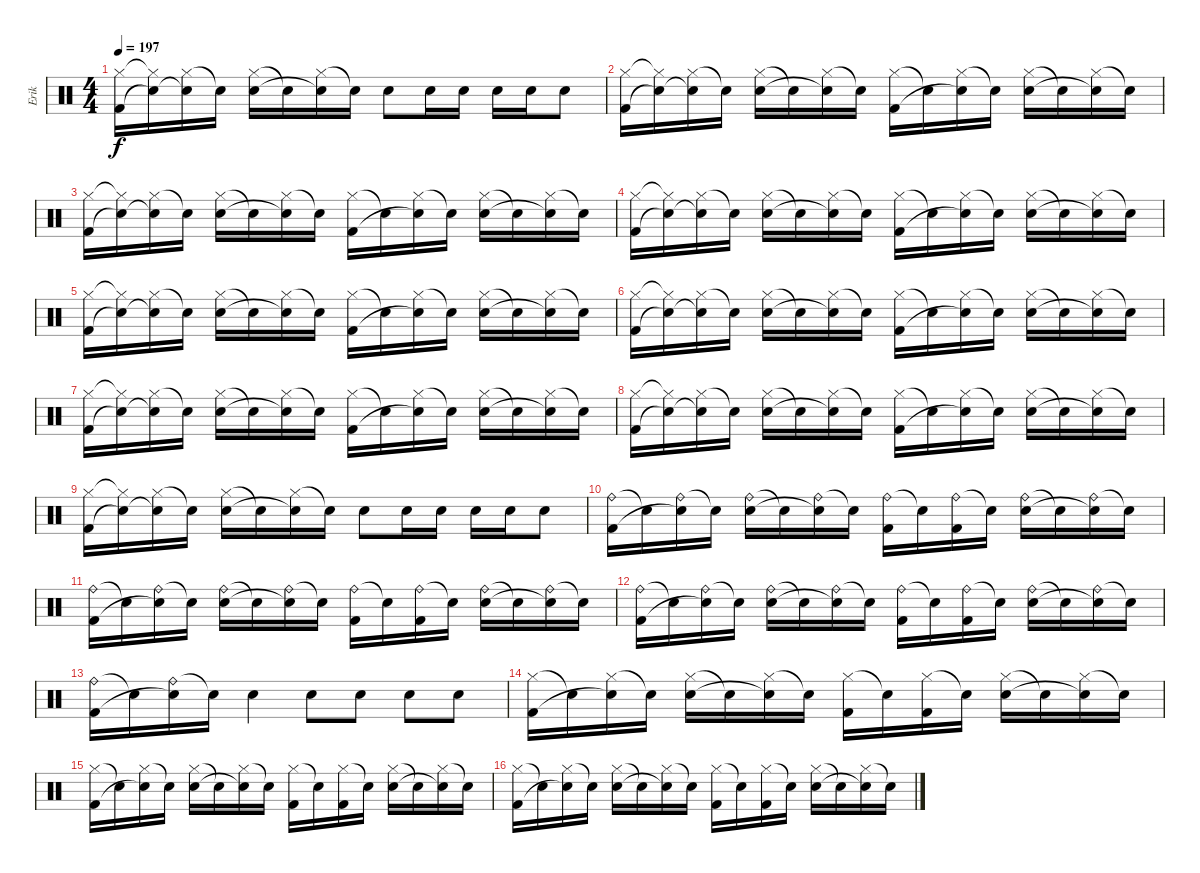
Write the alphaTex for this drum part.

\track ("Erik" "Erik") {instrument percussion}
\staff {score}
\articulation defaults
\ts (4 4)
\tempo 197
\clef neutral
\ks c
("Hi-Hat (closed)" "Kick (hit) 2").16{dy f} ("Hi-Hat (closed)"{t} "Electric Snare (hit)"{t}).16 ("Hi-Hat (closed)" "Snare (hit)"{t}).16 "Snare (hit)"{t}.16 ("Hi-Hat (closed)" "Electric Snare (hit)").16 "Snare (hit)"{t}.16 ("Hi-Hat (closed)" "Snare (hit)"{t}).16 "Snare (hit)"{t}.16 "Electric Snare (hit)".8 "Electric Snare (hit)".16 "Electric Snare (hit)".16 "Electric Snare (hit)".16 "Electric Snare (hit)".16 "Electric Snare (hit)".8 |
("Hi-Hat (closed)" "Kick (hit) 2").16 ("Hi-Hat (closed)"{t} "Electric Snare (hit)"{t}).16 ("Hi-Hat (closed)" "Snare (hit)"{t}).16 "Snare (hit)"{t}.16 ("Hi-Hat (closed)" "Electric Snare (hit)").16 "Snare (hit)"{t}.16 ("Hi-Hat (closed)" "Snare (hit)"{t}).16 "Snare (hit)"{t}.16 ("Hi-Hat (closed)" "Kick (hit) 2").16 "Snare (hit)"{t}.16 ("Hi-Hat (closed)" "Snare (hit)"{t}).16 "Snare (hit)"{t}.16 ("Hi-Hat (closed)" "Electric Snare (hit)").16 "Snare (hit)"{t}.16 ("Hi-Hat (closed)" "Snare (hit)"{t}).16 "Snare (hit)"{t}.16 |
("Hi-Hat (closed)" "Kick (hit) 2").16 ("Hi-Hat (closed)"{t} "Electric Snare (hit)"{t}).16 ("Hi-Hat (closed)" "Snare (hit)"{t}).16 "Snare (hit)"{t}.16 ("Hi-Hat (closed)" "Electric Snare (hit)").16 "Snare (hit)"{t}.16 ("Hi-Hat (closed)" "Snare (hit)"{t}).16 "Snare (hit)"{t}.16 ("Hi-Hat (closed)" "Kick (hit) 2").16 "Snare (hit)"{t}.16 ("Hi-Hat (closed)" "Snare (hit)"{t}).16 "Snare (hit)"{t}.16 ("Hi-Hat (closed)" "Electric Snare (hit)").16 "Snare (hit)"{t}.16 ("Hi-Hat (closed)" "Snare (hit)"{t}).16 "Snare (hit)"{t}.16 |
("Hi-Hat (closed)" "Kick (hit) 2").16 ("Hi-Hat (closed)"{t} "Electric Snare (hit)"{t}).16 ("Hi-Hat (closed)" "Snare (hit)"{t}).16 "Snare (hit)"{t}.16 ("Hi-Hat (closed)" "Electric Snare (hit)").16 "Snare (hit)"{t}.16 ("Hi-Hat (closed)" "Snare (hit)"{t}).16 "Snare (hit)"{t}.16 ("Hi-Hat (closed)" "Kick (hit) 2").16 "Snare (hit)"{t}.16 ("Hi-Hat (closed)" "Snare (hit)"{t}).16 "Snare (hit)"{t}.16 ("Hi-Hat (closed)" "Electric Snare (hit)").16 "Snare (hit)"{t}.16 ("Hi-Hat (closed)" "Snare (hit)"{t}).16 "Snare (hit)"{t}.16 |
("Hi-Hat (closed)" "Kick (hit) 2").16 ("Hi-Hat (closed)"{t} "Electric Snare (hit)"{t}).16 ("Hi-Hat (closed)" "Snare (hit)"{t}).16 "Snare (hit)"{t}.16 ("Hi-Hat (closed)" "Electric Snare (hit)").16 "Snare (hit)"{t}.16 ("Hi-Hat (closed)" "Snare (hit)"{t}).16 "Snare (hit)"{t}.16 ("Hi-Hat (closed)" "Kick (hit) 2").16 "Snare (hit)"{t}.16 ("Hi-Hat (closed)" "Snare (hit)"{t}).16 "Snare (hit)"{t}.16 ("Hi-Hat (closed)" "Electric Snare (hit)").16 "Snare (hit)"{t}.16 ("Hi-Hat (closed)" "Snare (hit)"{t}).16 "Snare (hit)"{t}.16 |
("Hi-Hat (closed)" "Kick (hit) 2").16 ("Hi-Hat (closed)"{t} "Electric Snare (hit)"{t}).16 ("Hi-Hat (closed)" "Snare (hit)"{t}).16 "Snare (hit)"{t}.16 ("Hi-Hat (closed)" "Electric Snare (hit)").16 "Snare (hit)"{t}.16 ("Hi-Hat (closed)" "Snare (hit)"{t}).16 "Snare (hit)"{t}.16 ("Hi-Hat (closed)" "Kick (hit) 2").16 "Snare (hit)"{t}.16 ("Hi-Hat (closed)" "Snare (hit)"{t}).16 "Snare (hit)"{t}.16 ("Hi-Hat (closed)" "Electric Snare (hit)").16 "Snare (hit)"{t}.16 ("Hi-Hat (closed)" "Snare (hit)"{t}).16 "Snare (hit)"{t}.16 |
("Hi-Hat (closed)" "Kick (hit) 2").16 ("Hi-Hat (closed)"{t} "Electric Snare (hit)"{t}).16 ("Hi-Hat (closed)" "Snare (hit)"{t}).16 "Snare (hit)"{t}.16 ("Hi-Hat (closed)" "Electric Snare (hit)").16 "Snare (hit)"{t}.16 ("Hi-Hat (closed)" "Snare (hit)"{t}).16 "Snare (hit)"{t}.16 ("Hi-Hat (closed)" "Kick (hit) 2").16 "Snare (hit)"{t}.16 ("Hi-Hat (closed)" "Snare (hit)"{t}).16 "Snare (hit)"{t}.16 ("Hi-Hat (closed)" "Electric Snare (hit)").16 "Snare (hit)"{t}.16 ("Hi-Hat (closed)" "Snare (hit)"{t}).16 "Snare (hit)"{t}.16 |
("Hi-Hat (closed)" "Kick (hit) 2").16 ("Hi-Hat (closed)"{t} "Electric Snare (hit)"{t}).16 ("Hi-Hat (closed)" "Snare (hit)"{t}).16 "Snare (hit)"{t}.16 ("Hi-Hat (closed)" "Electric Snare (hit)").16 "Snare (hit)"{t}.16 ("Hi-Hat (closed)" "Snare (hit)"{t}).16 "Snare (hit)"{t}.16 ("Hi-Hat (closed)" "Kick (hit) 2").16 "Snare (hit)"{t}.16 ("Hi-Hat (closed)" "Snare (hit)"{t}).16 "Snare (hit)"{t}.16 ("Hi-Hat (closed)" "Electric Snare (hit)").16 "Snare (hit)"{t}.16 ("Hi-Hat (closed)" "Snare (hit)"{t}).16 "Snare (hit)"{t}.16 |
("Hi-Hat (closed)" "Kick (hit) 2").16 ("Hi-Hat (closed)"{t} "Electric Snare (hit)"{t}).16 ("Hi-Hat (closed)" "Snare (hit)"{t}).16 "Snare (hit)"{t}.16 ("Hi-Hat (closed)" "Electric Snare (hit)").16 "Snare (hit)"{t}.16 ("Hi-Hat (closed)" "Snare (hit)"{t}).16 "Snare (hit)"{t}.16 "Electric Snare (hit)".8 "Electric Snare (hit)".16 "Electric Snare (hit)".16 "Electric Snare (hit)".16 "Electric Snare (hit)".16 "Electric Snare (hit)".8 |
("Ride (bell)" "Kick (hit) 2").16 "Snare (hit)"{t}.16 ("Ride (bell)" "Snare (hit)"{t}).16 "Snare (hit)"{t}.16 ("Ride (bell)" "Electric Snare (hit)").16 "Snare (hit)"{t}.16 ("Ride (bell)" "Snare (hit)"{t}).16 "Snare (hit)"{t}.16 ("Ride (bell)" "Kick (hit) 2").16 "Snare (hit)"{t}.16 ("Ride (bell)" "Kick (hit) 2").16 "Snare (hit)"{t}.16 ("Ride (bell)" "Electric Snare (hit)").16 "Snare (hit)"{t}.16 ("Ride (bell)" "Snare (hit)"{t}).16 "Snare (hit)"{t}.16 |
("Ride (bell)" "Kick (hit) 2").16 "Snare (hit)"{t}.16 ("Ride (bell)" "Snare (hit)"{t}).16 "Snare (hit)"{t}.16 ("Ride (bell)" "Electric Snare (hit)").16 "Snare (hit)"{t}.16 ("Ride (bell)" "Snare (hit)"{t}).16 "Snare (hit)"{t}.16 ("Ride (bell)" "Kick (hit) 2").16 "Snare (hit)"{t}.16 ("Ride (bell)" "Kick (hit) 2").16 "Snare (hit)"{t}.16 ("Ride (bell)" "Electric Snare (hit)").16 "Snare (hit)"{t}.16 ("Ride (bell)" "Snare (hit)"{t}).16 "Snare (hit)"{t}.16 |
("Ride (bell)" "Kick (hit) 2").16 "Snare (hit)"{t}.16 ("Ride (bell)" "Snare (hit)"{t}).16 "Snare (hit)"{t}.16 ("Ride (bell)" "Electric Snare (hit)").16 "Snare (hit)"{t}.16 ("Ride (bell)" "Snare (hit)"{t}).16 "Snare (hit)"{t}.16 ("Ride (bell)" "Kick (hit) 2").16 "Snare (hit)"{t}.16 ("Ride (bell)" "Kick (hit) 2").16 "Snare (hit)"{t}.16 ("Ride (bell)" "Electric Snare (hit)").16 "Snare (hit)"{t}.16 ("Ride (bell)" "Snare (hit)"{t}).16 "Snare (hit)"{t}.16 |
("Ride (bell)" "Kick (hit) 2").16 "Snare (hit)"{t}.16 ("Ride (bell)" "Snare (hit)"{t}).16 "Snare (hit)"{t}.16 "Electric Snare (hit)".4 "Electric Snare (hit)".8 "Electric Snare (hit)".8 "Electric Snare (hit)".8 "Electric Snare (hit)".8 |
("Hi-Hat (closed)" "Kick (hit) 2").16 "Snare (hit)"{t}.16 ("Hi-Hat (closed)" "Snare (hit)"{t}).16 "Snare (hit)"{t}.16 ("Hi-Hat (closed)" "Electric Snare (hit)").16 "Snare (hit)"{t}.16 ("Hi-Hat (closed)" "Snare (hit)"{t}).16 "Snare (hit)"{t}.16 ("Hi-Hat (closed)" "Kick (hit) 2").16 "Snare (hit)"{t}.16 ("Hi-Hat (closed)" "Kick (hit) 2").16 "Snare (hit)"{t}.16 ("Hi-Hat (closed)" "Electric Snare (hit)").16 "Snare (hit)"{t}.16 ("Hi-Hat (closed)" "Snare (hit)"{t}).16 "Snare (hit)"{t}.16 |
("Hi-Hat (closed)" "Kick (hit) 2").16 "Snare (hit)"{t}.16 ("Hi-Hat (closed)" "Snare (hit)"{t}).16 "Snare (hit)"{t}.16 ("Hi-Hat (closed)" "Electric Snare (hit)").16 "Snare (hit)"{t}.16 ("Hi-Hat (closed)" "Snare (hit)"{t}).16 "Snare (hit)"{t}.16 ("Hi-Hat (closed)" "Kick (hit) 2").16 "Snare (hit)"{t}.16 ("Hi-Hat (closed)" "Kick (hit) 2").16 "Snare (hit)"{t}.16 ("Hi-Hat (closed)" "Electric Snare (hit)").16 "Snare (hit)"{t}.16 ("Hi-Hat (closed)" "Snare (hit)"{t}).16 "Snare (hit)"{t}.16 |
("Hi-Hat (closed)" "Kick (hit) 2").16 "Snare (hit)"{t}.16 ("Hi-Hat (closed)" "Snare (hit)"{t}).16 "Snare (hit)"{t}.16 ("Hi-Hat (closed)" "Electric Snare (hit)").16 "Snare (hit)"{t}.16 ("Hi-Hat (closed)" "Snare (hit)"{t}).16 "Snare (hit)"{t}.16 ("Hi-Hat (closed)" "Kick (hit) 2").16 "Snare (hit)"{t}.16 ("Hi-Hat (closed)" "Kick (hit) 2").16 "Snare (hit)"{t}.16 ("Hi-Hat (closed)" "Electric Snare (hit)").16 "Snare (hit)"{t}.16 ("Hi-Hat (closed)" "Snare (hit)"{t}).16 "Snare (hit)"{t}.16
